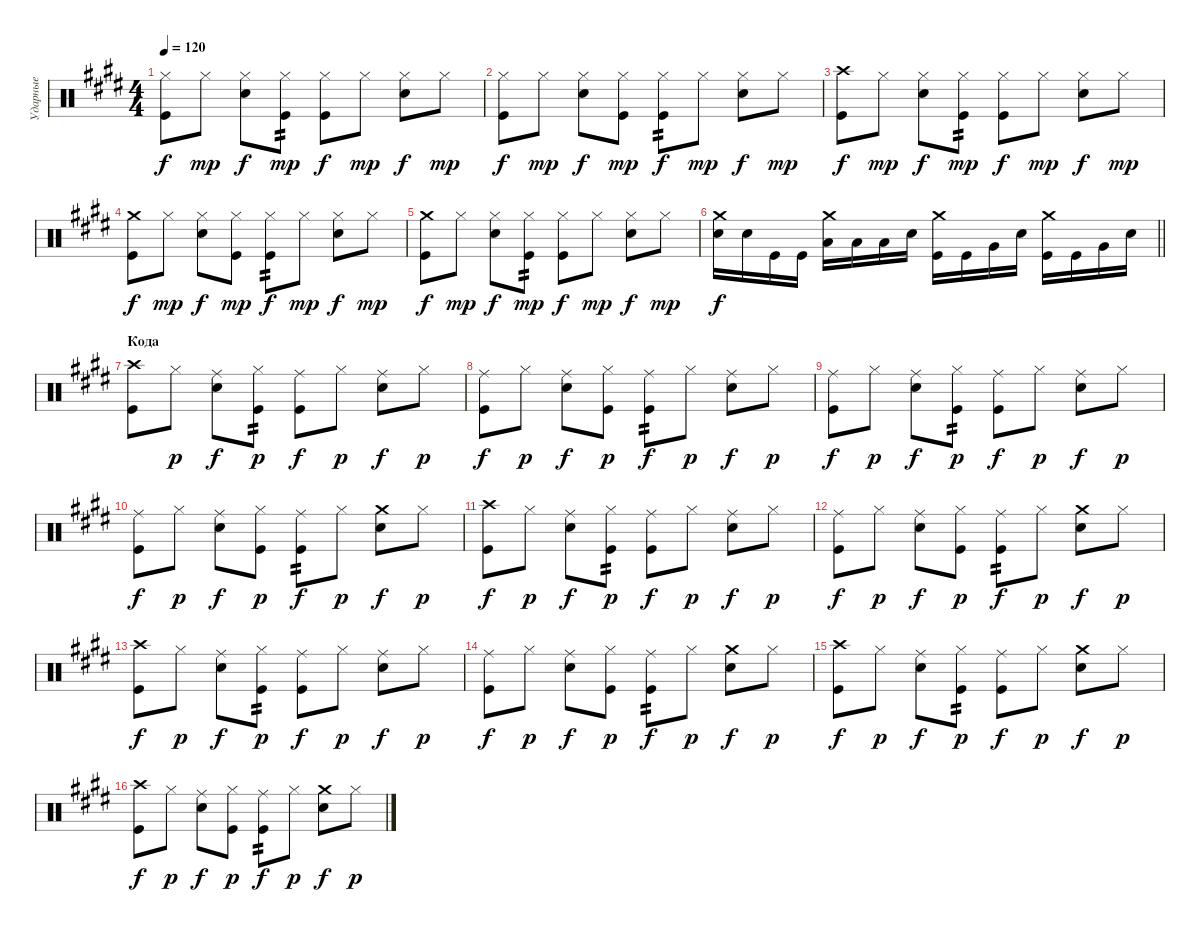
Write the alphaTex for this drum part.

\track ("Ударные" "Ударные") {instrument percussion}
\staff {score}
\articulation defaults
\ts (4 4)
\tempo 120
\clef neutral
\ks e
("Hi-Hat (closed)" "Kick (hit)").8{dy f} "Hi-Hat (closed)".8{dy mp} ("Hi-Hat (closed)" "Snare (hit) 2").8{dy f} ("Hi-Hat (closed)" "Kick (hit)").8{tp 2 dy mp} ("Hi-Hat (closed)" "Kick (hit)").8{dy f} "Hi-Hat (closed)".8{dy mp} ("Hi-Hat (closed)" "Snare (hit) 2").8{dy f} "Hi-Hat (closed)".8{dy mp} |
("Hi-Hat (closed)" "Kick (hit)").8{dy f} "Hi-Hat (closed)".8{dy mp} ("Hi-Hat (closed)" "Snare (hit) 2").8{dy f} ("Hi-Hat (closed)" "Kick (hit)").8{dy mp} ("Hi-Hat (closed)" "Kick (hit)").8{tp 2 dy f} "Hi-Hat (closed)".8{dy mp} ("Hi-Hat (closed)" "Snare (hit) 2").8{dy f} "Hi-Hat (closed)".8{dy mp} |
("Crash high (hit)" "Kick (hit)").8{dy f} "Hi-Hat (closed)".8{dy mp} ("Hi-Hat (closed)" "Snare (hit) 2").8{dy f} ("Hi-Hat (closed)" "Kick (hit)").8{tp 2 dy mp} ("Hi-Hat (closed)" "Kick (hit)").8{dy f} "Hi-Hat (closed)".8{dy mp} ("Hi-Hat (closed)" "Snare (hit) 2").8{dy f} "Hi-Hat (closed)".8{dy mp} |
("Crash medium (hit)" "Kick (hit)").8{dy f} "Hi-Hat (closed)".8{dy mp} ("Hi-Hat (closed)" "Snare (hit) 2").8{dy f} ("Hi-Hat (closed)" "Kick (hit)").8{dy mp} ("Hi-Hat (closed)" "Kick (hit)").8{tp 2 dy f} "Hi-Hat (closed)".8{dy mp} ("Hi-Hat (closed)" "Snare (hit) 2").8{dy f} "Hi-Hat (closed)".8{dy mp} |
("Crash medium (hit)" "Kick (hit)").8{dy f} "Hi-Hat (closed)".8{dy mp} ("Hi-Hat (closed)" "Snare (hit) 2").8{dy f} ("Hi-Hat (closed)" "Kick (hit)").8{tp 2 dy mp} ("Hi-Hat (closed)" "Kick (hit)").8{dy f} "Hi-Hat (closed)".8{dy mp} ("Hi-Hat (closed)" "Snare (hit) 2").8{dy f} "Hi-Hat (closed)".8{dy mp} |
\barLineRight lightlight
("Crash medium (hit)" "Snare (hit) 2").16{dy f} "Snare (hit) 2".16 "Kick (hit)".16 "Kick (hit)".16 ("Crash medium (hit)" "Low Tom (hit)").16 "Low Tom (hit)".16 "Low Tom (hit)".16 "Snare (hit) 2".16 ("Crash medium (hit)" "Kick (hit)").16 "Kick (hit)".16 "Very Low Tom (hit)".16 "Snare (hit) 2".16 ("Crash medium (hit)" "Kick (hit)").16 "Kick (hit)".16 "Very Low Tom (hit)".16 "Snare (hit) 2".16 |
\section ("" "Кода")
("Crash high (hit)" "Kick (hit)").8 "Hi-Hat (closed)".8{dy p} ("Ride (middle)" "Snare (hit) 2").8{dy f} ("Hi-Hat (closed)" "Kick (hit)").8{tp 2 dy p} ("Ride (middle)" "Kick (hit)").8{dy f} "Hi-Hat (closed)".8{dy p} ("Ride (middle)" "Snare (hit) 2").8{dy f} "Hi-Hat (closed)".8{dy p} |
("Ride (middle)" "Kick (hit)").8{dy f} "Hi-Hat (closed)".8{dy p} ("Ride (middle)" "Snare (hit) 2").8{dy f} ("Hi-Hat (closed)" "Kick (hit)").8{dy p} ("Ride (middle)" "Kick (hit)").8{tp 2 dy f} "Hi-Hat (closed)".8{dy p} ("Ride (middle)" "Snare (hit) 2").8{dy f} "Hi-Hat (closed)".8{dy p} |
("Ride (middle)" "Kick (hit)").8{dy f} "Hi-Hat (closed)".8{dy p} ("Ride (middle)" "Snare (hit) 2").8{dy f} ("Hi-Hat (closed)" "Kick (hit)").8{tp 2 dy p} ("Ride (middle)" "Kick (hit)").8{dy f} "Hi-Hat (closed)".8{dy p} ("Ride (middle)" "Snare (hit) 2").8{dy f} "Hi-Hat (closed)".8{dy p} |
("Ride (middle)" "Kick (hit)").8{dy f} "Hi-Hat (closed)".8{dy p} ("Ride (middle)" "Snare (hit) 2").8{dy f} ("Hi-Hat (closed)" "Kick (hit)").8{dy p} ("Ride (middle)" "Kick (hit)").8{tp 2 dy f} "Hi-Hat (closed)".8{dy p} ("Crash medium (hit)" "Snare (hit) 2").8{dy f} "Hi-Hat (closed)".8{dy p} |
("Crash high (hit)" "Kick (hit)").8{dy f} "Hi-Hat (closed)".8{dy p} ("Ride (middle)" "Snare (hit) 2").8{dy f} ("Hi-Hat (closed)" "Kick (hit)").8{tp 2 dy p} ("Ride (middle)" "Kick (hit)").8{dy f} "Hi-Hat (closed)".8{dy p} ("Ride (middle)" "Snare (hit) 2").8{dy f} "Hi-Hat (closed)".8{dy p} |
("Ride (middle)" "Kick (hit)").8{dy f} "Hi-Hat (closed)".8{dy p} ("Ride (middle)" "Snare (hit) 2").8{dy f} ("Hi-Hat (closed)" "Kick (hit)").8{dy p} ("Ride (middle)" "Kick (hit)").8{tp 2 dy f} "Hi-Hat (closed)".8{dy p} ("Crash medium (hit)" "Snare (hit) 2").8{dy f} "Hi-Hat (closed)".8{dy p} |
("Crash high (hit)" "Kick (hit)").8{dy f} "Hi-Hat (closed)".8{dy p} ("Ride (middle)" "Snare (hit) 2").8{dy f} ("Hi-Hat (closed)" "Kick (hit)").8{tp 2 dy p} ("Ride (middle)" "Kick (hit)").8{dy f} "Hi-Hat (closed)".8{dy p} ("Ride (middle)" "Snare (hit) 2").8{dy f} "Hi-Hat (closed)".8{dy p} |
("Ride (middle)" "Kick (hit)").8{dy f} "Hi-Hat (closed)".8{dy p} ("Ride (middle)" "Snare (hit) 2").8{dy f} ("Hi-Hat (closed)" "Kick (hit)").8{dy p} ("Ride (middle)" "Kick (hit)").8{tp 2 dy f} "Hi-Hat (closed)".8{dy p} ("Crash medium (hit)" "Snare (hit) 2").8{dy f} "Hi-Hat (closed)".8{dy p} |
("Crash high (hit)" "Kick (hit)").8{dy f} "Hi-Hat (closed)".8{dy p} ("Ride (middle)" "Snare (hit) 2").8{dy f} ("Hi-Hat (closed)" "Kick (hit)").8{tp 2 dy p} ("Ride (middle)" "Kick (hit)").8{dy f} "Hi-Hat (closed)".8{dy p} ("Crash medium (hit)" "Snare (hit) 2").8{dy f} "Hi-Hat (closed)".8{dy p} |
("Crash high (hit)" "Kick (hit)").8{dy f} "Hi-Hat (closed)".8{dy p} ("Ride (middle)" "Snare (hit) 2").8{dy f} ("Hi-Hat (closed)" "Kick (hit)").8{dy p} ("Ride (middle)" "Kick (hit)").8{tp 2 dy f} "Hi-Hat (closed)".8{dy p} ("Crash medium (hit)" "Snare (hit) 2").8{dy f} "Hi-Hat (closed)".8{dy p}
